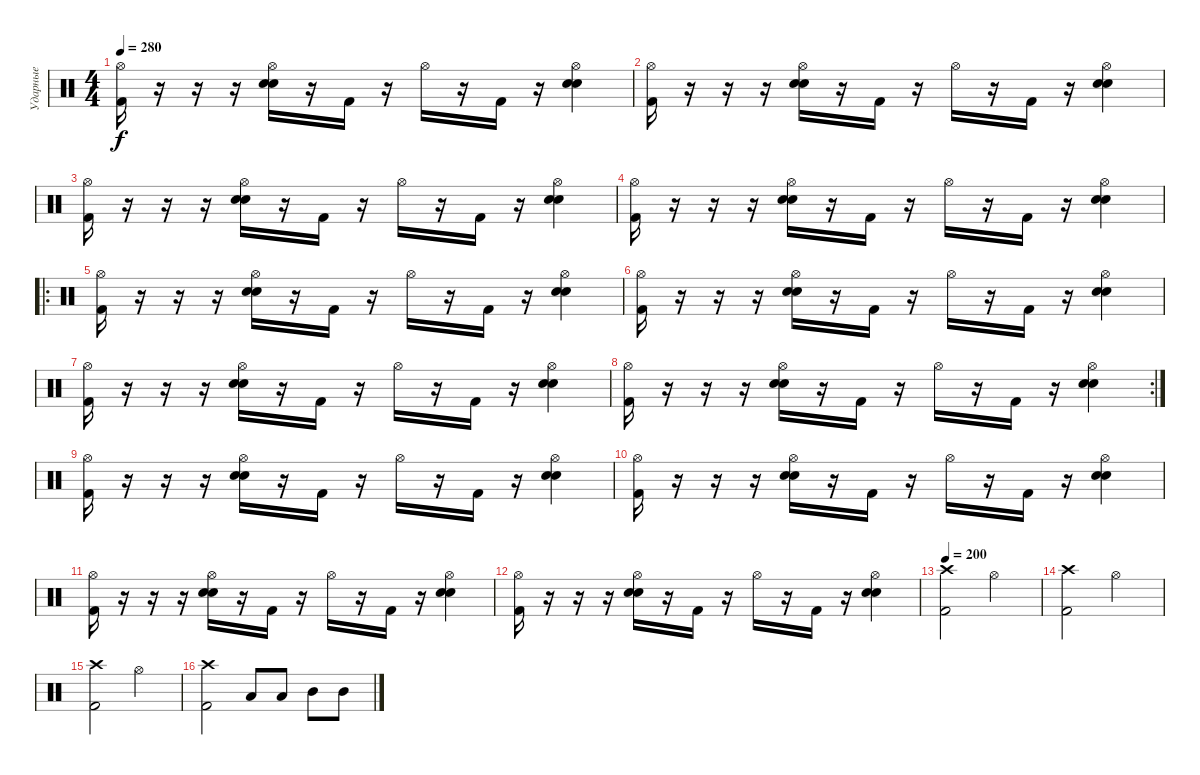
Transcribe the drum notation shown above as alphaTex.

\track ("Ударные" "Ударные") {instrument percussion}
\staff {score}
\articulation defaults
\ts (4 4)
\tempo 280
\clef neutral
\ks c
("Hi-Hat (open)" "Kick (hit) 2").16{dy f} r.16 r.16 r.16 ("Hi-Hat (open)" "Electric Snare (hit)" "Snare (hit) 2").16 r.16 "Kick (hit) 2".16 r.16 "Hi-Hat (open)".16 r.16 "Kick (hit) 2".16 r.16 ("Hi-Hat (open)" "Electric Snare (hit)" "Snare (hit) 2").4 |
("Hi-Hat (open)" "Kick (hit) 2").16 r.16 r.16 r.16 ("Hi-Hat (open)" "Electric Snare (hit)" "Snare (hit) 2").16 r.16 "Kick (hit) 2".16 r.16 "Hi-Hat (open)".16 r.16 "Kick (hit) 2".16 r.16 ("Hi-Hat (open)" "Electric Snare (hit)" "Snare (hit) 2").4 |
("Hi-Hat (open)" "Kick (hit) 2").16 r.16 r.16 r.16 ("Hi-Hat (open)" "Electric Snare (hit)" "Snare (hit) 2").16 r.16 "Kick (hit) 2".16 r.16 "Hi-Hat (open)".16 r.16 "Kick (hit) 2".16 r.16 ("Hi-Hat (open)" "Electric Snare (hit)" "Snare (hit) 2").4 |
("Hi-Hat (open)" "Kick (hit) 2").16 r.16 r.16 r.16 ("Hi-Hat (open)" "Electric Snare (hit)" "Snare (hit) 2").16 r.16 "Kick (hit) 2".16 r.16 "Hi-Hat (open)".16 r.16 "Kick (hit) 2".16 r.16 ("Hi-Hat (open)" "Electric Snare (hit)" "Snare (hit) 2").4 |
\ro
("Hi-Hat (open)" "Kick (hit) 2").16 r.16 r.16 r.16 ("Hi-Hat (open)" "Electric Snare (hit)" "Snare (hit) 2").16 r.16 "Kick (hit) 2".16 r.16 "Hi-Hat (open)".16 r.16 "Kick (hit) 2".16 r.16 ("Hi-Hat (open)" "Electric Snare (hit)" "Snare (hit) 2").4 |
("Hi-Hat (open)" "Kick (hit) 2").16 r.16 r.16 r.16 ("Hi-Hat (open)" "Electric Snare (hit)" "Snare (hit) 2").16 r.16 "Kick (hit) 2".16 r.16 "Hi-Hat (open)".16 r.16 "Kick (hit) 2".16 r.16 ("Hi-Hat (open)" "Electric Snare (hit)" "Snare (hit) 2").4 |
("Hi-Hat (open)" "Kick (hit) 2").16 r.16 r.16 r.16 ("Hi-Hat (open)" "Electric Snare (hit)" "Snare (hit) 2").16 r.16 "Kick (hit) 2".16 r.16 "Hi-Hat (open)".16 r.16 "Kick (hit) 2".16 r.16 ("Hi-Hat (open)" "Electric Snare (hit)" "Snare (hit) 2").4 |
\rc 2
("Hi-Hat (open)" "Kick (hit) 2").16 r.16 r.16 r.16 ("Hi-Hat (open)" "Electric Snare (hit)" "Snare (hit) 2").16 r.16 "Kick (hit) 2".16 r.16 "Hi-Hat (open)".16 r.16 "Kick (hit) 2".16 r.16 ("Hi-Hat (open)" "Electric Snare (hit)" "Snare (hit) 2").4 |
("Hi-Hat (open)" "Kick (hit) 2").16 r.16 r.16 r.16 ("Hi-Hat (open)" "Electric Snare (hit)" "Snare (hit) 2").16 r.16 "Kick (hit) 2".16 r.16 "Hi-Hat (open)".16 r.16 "Kick (hit) 2".16 r.16 ("Hi-Hat (open)" "Electric Snare (hit)" "Snare (hit) 2").4 |
("Hi-Hat (open)" "Kick (hit) 2").16 r.16 r.16 r.16 ("Hi-Hat (open)" "Electric Snare (hit)" "Snare (hit) 2").16 r.16 "Kick (hit) 2".16 r.16 "Hi-Hat (open)".16 r.16 "Kick (hit) 2".16 r.16 ("Hi-Hat (open)" "Electric Snare (hit)" "Snare (hit) 2").4 |
("Hi-Hat (open)" "Kick (hit) 2").16 r.16 r.16 r.16 ("Hi-Hat (open)" "Electric Snare (hit)" "Snare (hit) 2").16 r.16 "Kick (hit) 2".16 r.16 "Hi-Hat (open)".16 r.16 "Kick (hit) 2".16 r.16 ("Hi-Hat (open)" "Electric Snare (hit)" "Snare (hit) 2").4 |
("Hi-Hat (open)" "Kick (hit) 2").16 r.16 r.16 r.16 ("Hi-Hat (open)" "Electric Snare (hit)" "Snare (hit) 2").16 r.16 "Kick (hit) 2".16 r.16 "Hi-Hat (open)".16 r.16 "Kick (hit) 2".16 r.16 ("Hi-Hat (open)" "Electric Snare (hit)" "Snare (hit) 2").4 |
\tempo 200
("Crash high (hit)" "Kick (hit) 2").2 "Hi-Hat (open)".2 |
("Crash high (hit)" "Kick (hit) 2").2 "Hi-Hat (open)".2 |
("Crash high (hit)" "Kick (hit) 2").2 "Hi-Hat (open)".2 |
("Crash high (hit)" "Kick (hit) 2").2 "Low Tom (hit)".8 "Low Tom (hit)".8 "Mid Tom (hit)".8 "Mid Tom (hit)".8
